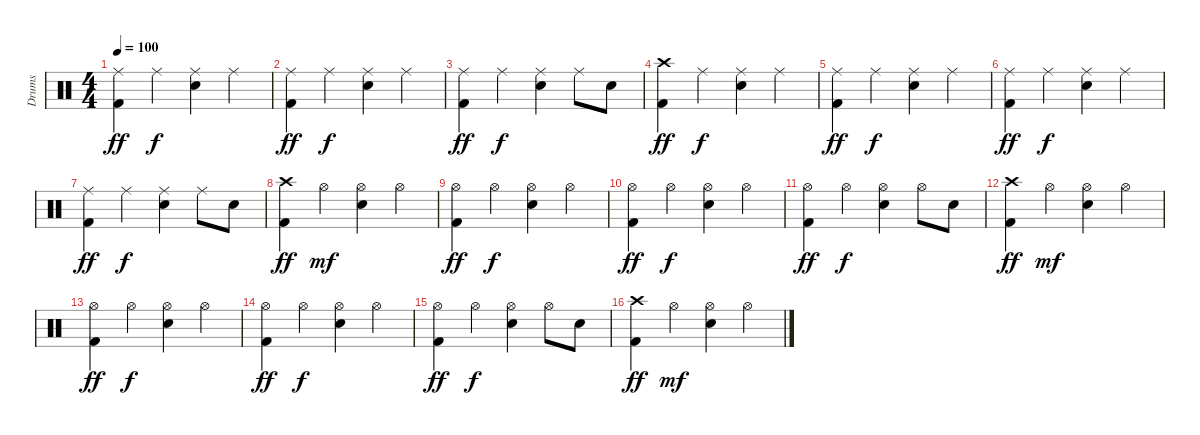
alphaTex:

\track ("Drums" "Drums") {instrument percussion}
\staff {score}
\articulation defaults
\ts (4 4)
\tempo 100
\clef neutral
\ks c
("Ride (middle)" "Kick (hit) 2").4{dy ff} "Ride (middle)".4{dy f} ("Ride (middle)" "Electric Snare (hit)").4 "Ride (middle)".4 |
("Ride (middle)" "Kick (hit) 2").4{dy ff} "Ride (middle)".4{dy f} ("Ride (middle)" "Electric Snare (hit)").4 "Ride (middle)".4 |
("Ride (middle)" "Kick (hit) 2").4{dy ff} "Ride (middle)".4{dy f} ("Ride (middle)" "Electric Snare (hit)").4 "Ride (middle)".8 "Electric Snare (hit)".8 |
("Crash high (hit)" "Kick (hit) 2").4{dy ff} "Ride (middle)".4{dy f} ("Ride (middle)" "Electric Snare (hit)").4 "Ride (middle)".4 |
("Ride (middle)" "Kick (hit) 2").4{dy ff} "Ride (middle)".4{dy f} ("Ride (middle)" "Electric Snare (hit)").4 "Ride (middle)".4 |
("Ride (middle)" "Kick (hit) 2").4{dy ff} "Ride (middle)".4{dy f} ("Ride (middle)" "Electric Snare (hit)").4 "Ride (middle)".4 |
("Ride (middle)" "Kick (hit) 2").4{dy ff} "Ride (middle)".4{dy f} ("Ride (middle)" "Electric Snare (hit)").4 "Ride (middle)".8 "Electric Snare (hit)".8 |
("Crash high (hit)" "Kick (hit) 2").4{dy ff} "Hi-Hat (open)".4{dy mf} ("Hi-Hat (open)" "Electric Snare (hit)").4 "Hi-Hat (open)".4 |
("Hi-Hat (open)" "Kick (hit) 2").4{dy ff} "Hi-Hat (open)".4{dy f} ("Hi-Hat (open)" "Electric Snare (hit)").4 "Hi-Hat (open)".4 |
("Hi-Hat (open)" "Kick (hit) 2").4{dy ff} "Hi-Hat (open)".4{dy f} ("Hi-Hat (open)" "Electric Snare (hit)").4 "Hi-Hat (open)".4 |
("Hi-Hat (open)" "Kick (hit) 2").4{dy ff} "Hi-Hat (open)".4{dy f} ("Hi-Hat (open)" "Electric Snare (hit)").4 "Hi-Hat (open)".8 "Electric Snare (hit)".8 |
("Crash high (hit)" "Kick (hit) 2").4{dy ff} "Hi-Hat (open)".4{dy mf} ("Hi-Hat (open)" "Electric Snare (hit)").4 "Hi-Hat (open)".4 |
("Hi-Hat (open)" "Kick (hit) 2").4{dy ff} "Hi-Hat (open)".4{dy f} ("Hi-Hat (open)" "Electric Snare (hit)").4 "Hi-Hat (open)".4 |
("Hi-Hat (open)" "Kick (hit) 2").4{dy ff} "Hi-Hat (open)".4{dy f} ("Hi-Hat (open)" "Electric Snare (hit)").4 "Hi-Hat (open)".4 |
("Hi-Hat (open)" "Kick (hit) 2").4{dy ff} "Hi-Hat (open)".4{dy f} ("Hi-Hat (open)" "Electric Snare (hit)").4 "Hi-Hat (open)".8 "Electric Snare (hit)".8 |
("Crash high (hit)" "Kick (hit) 2").4{dy ff} "Hi-Hat (open)".4{dy mf} ("Hi-Hat (open)" "Electric Snare (hit)").4 "Hi-Hat (open)".4
